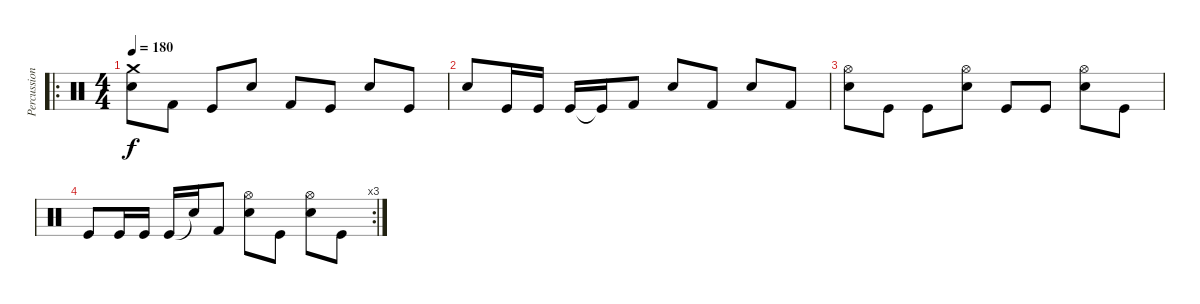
\track ("Percussion" "Percussion") {instrument percussion}
\staff {score}
\articulation defaults
\ro
\ts (4 4)
\tempo 180
\clef neutral
\ks c
("Crash medium (hit)" "Snare (hit) 2").8{dy f} "Kick (hit) 2".8 "Kick (hit)".8 "Snare (hit) 2".8 "Kick (hit) 2".8 "Kick (hit)".8 "Snare (hit) 2".8 "Kick (hit)".8 |
"Snare (hit) 2".8 "Kick (hit)".16 "Kick (hit)".16 "Kick (hit)".16 "Kick (hit)"{t}.16 "Kick (hit) 2".8 "Snare (hit) 2".8 "Kick (hit) 2".8 "Snare (hit) 2".8 "Kick (hit) 2".8 |
("Hi-Hat (open)" "Snare (hit) 2").8 "Kick (hit)".8 "Kick (hit)".8 ("Hi-Hat (open)" "Snare (hit) 2").8 "Kick (hit)".8 "Kick (hit)".8 ("Hi-Hat (open)" "Snare (hit) 2").8 "Kick (hit)".8 |
\rc 3 "Kick (hit)".8 "Kick (hit)".16 "Kick (hit)".16 "Kick (hit)".16 "Snare (hit)"{t}.16 "Kick (hit) 2".8
("Hi-Hat (open)" "Snare (hit) 2").8 "Kick (hit)".8 ("Hi-Hat (open)" "Snare (hit) 2").8 "Kick (hit)".8
